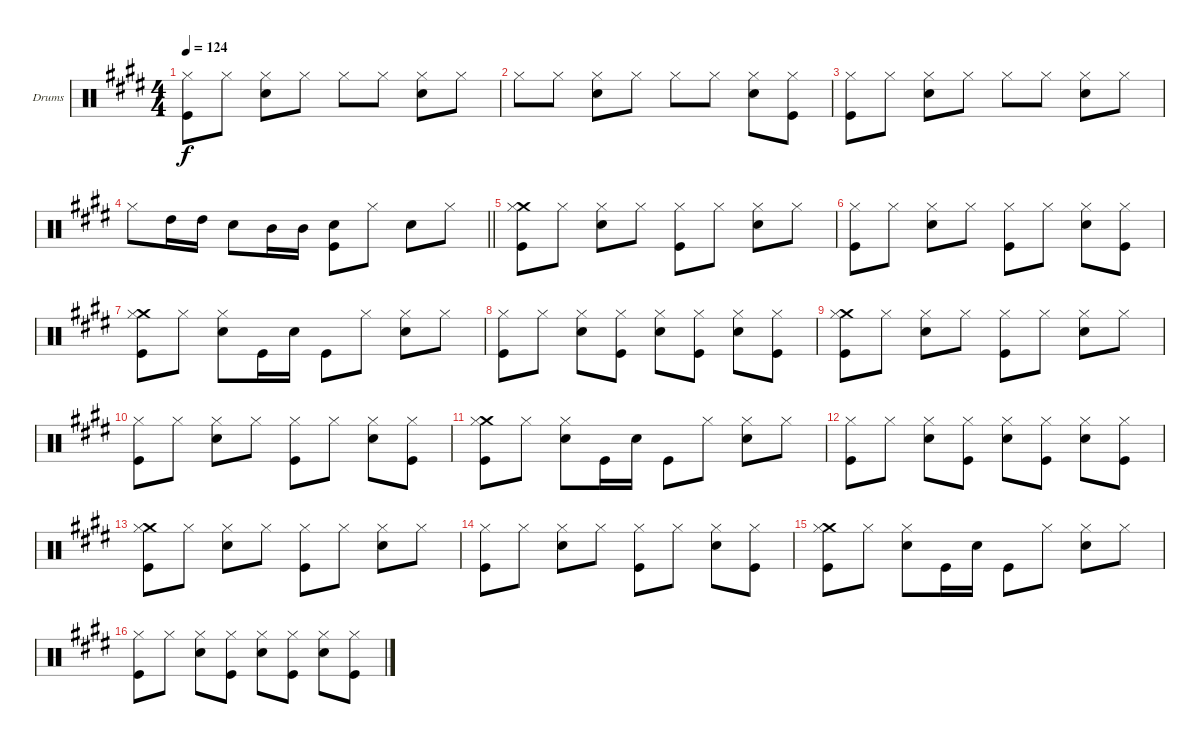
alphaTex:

\defaultSystemsLayout 4
\bracketExtendMode groupsimilarinstruments
\firstSystemTrackNameOrientation horizontal
\otherSystemsTrackNameOrientation horizontal
\track ("Drumkit" "Drums") {instrument percussion}
\staff {score}
\articulation defaults
\ts (4 4)
\tempo 124
\clef neutral
\scale
1.06557
\ks e
("Hi-Hat (closed)" "Kick (hit)").8{dy f} "Hi-Hat (closed)".8 ("Hi-Hat (closed)" "Snare (hit) 2").8 "Hi-Hat (closed)".8 "Hi-Hat (closed)".8 "Hi-Hat (closed)".8 ("Hi-Hat (closed)" "Snare (hit) 2").8 "Hi-Hat (closed)".8 |
\scale
0.934426 "Hi-Hat (closed)".8 "Hi-Hat (closed)".8 ("Hi-Hat (closed)" "Snare (hit) 2").8 "Hi-Hat (closed)".8 "Hi-Hat (closed)".8 "Hi-Hat (closed)".8 ("Hi-Hat (closed)" "Snare (hit) 2").8 ("Hi-Hat (closed)" "Kick (hit)").8 |
\scale
1.06557 ("Hi-Hat (closed)" "Kick (hit)").8 "Hi-Hat (closed)".8 ("Hi-Hat (closed)" "Snare (hit) 2").8 "Hi-Hat (closed)".8 "Hi-Hat (closed)".8 "Hi-Hat (closed)".8 ("Hi-Hat (closed)" "Snare (hit) 2").8 "Hi-Hat (closed)".8 |
\scale
0.934426
\barLineRight lightlight "Hi-Hat (closed)".8 "High Tom (hit)".16 "High Tom (hit)".16 "Snare (hit) 2".8 "Mid Tom (hit)".16 "Mid Tom (hit)".16
("Snare (hit) 2" "Kick (hit)").8 "Hi-Hat (closed)".8 "Snare (hit) 2".8 "Hi-Hat (closed)".8 |
\scale
1.06557 ("Crash medium (hit)" "Hi-Hat (closed)" "Kick (hit)").8 "Hi-Hat (closed)".8 ("Hi-Hat (closed)" "Snare (hit) 2").8 "Hi-Hat (closed)".8 ("Hi-Hat (closed)" "Kick (hit)").8 "Hi-Hat (closed)".8 ("Hi-Hat (closed)" "Snare (hit) 2").8 "Hi-Hat (closed)".8 |
\scale
0.934426 ("Hi-Hat (closed)" "Kick (hit)").8 "Hi-Hat (closed)".8 ("Hi-Hat (closed)" "Snare (hit) 2").8 "Hi-Hat (closed)".8 ("Hi-Hat (closed)" "Kick (hit)").8 "Hi-Hat (closed)".8 ("Hi-Hat (closed)" "Snare (hit) 2").8 ("Hi-Hat (closed)" "Kick (hit)").8 |
\scale
1.06557 ("Crash medium (hit)" "Hi-Hat (closed)" "Kick (hit)").8 "Hi-Hat (closed)".8 ("Hi-Hat (closed)" "Snare (hit) 2").8 "Kick (hit)".16 "Snare (hit) 2".16 "Kick (hit)".8 "Hi-Hat (closed)".8 ("Hi-Hat (closed)" "Snare (hit) 2").8 "Hi-Hat (closed)".8 |
\scale
0.934426 ("Hi-Hat (closed)" "Kick (hit)").8 "Hi-Hat (closed)".8 ("Hi-Hat (closed)" "Snare (hit) 2").8 ("Hi-Hat (closed)" "Kick (hit)").8 ("Hi-Hat (closed)" "Snare (hit) 2").8 ("Hi-Hat (closed)" "Kick (hit)").8 ("Hi-Hat (closed)" "Snare (hit) 2").8 ("Hi-Hat (closed)" "Kick (hit)").8 |
\scale
1.06557 ("Crash medium (hit)" "Hi-Hat (closed)" "Kick (hit)").8 "Hi-Hat (closed)".8 ("Hi-Hat (closed)" "Snare (hit) 2").8 "Hi-Hat (closed)".8 ("Hi-Hat (closed)" "Kick (hit)").8 "Hi-Hat (closed)".8 ("Hi-Hat (closed)" "Snare (hit) 2").8 "Hi-Hat (closed)".8 |
\scale
0.934426 ("Hi-Hat (closed)" "Kick (hit)").8 "Hi-Hat (closed)".8 ("Hi-Hat (closed)" "Snare (hit) 2").8 "Hi-Hat (closed)".8 ("Hi-Hat (closed)" "Kick (hit)").8 "Hi-Hat (closed)".8 ("Hi-Hat (closed)" "Snare (hit) 2").8 ("Hi-Hat (closed)" "Kick (hit)").8 |
\scale
1.06557 ("Crash medium (hit)" "Hi-Hat (closed)" "Kick (hit)").8 "Hi-Hat (closed)".8 ("Hi-Hat (closed)" "Snare (hit) 2").8 "Kick (hit)".16 "Snare (hit) 2".16 "Kick (hit)".8 "Hi-Hat (closed)".8 ("Hi-Hat (closed)" "Snare (hit) 2").8 "Hi-Hat (closed)".8 |
\scale
0.934426 ("Hi-Hat (closed)" "Kick (hit)").8 "Hi-Hat (closed)".8 ("Hi-Hat (closed)" "Snare (hit) 2").8 ("Hi-Hat (closed)" "Kick (hit)").8 ("Hi-Hat (closed)" "Snare (hit) 2").8 ("Hi-Hat (closed)" "Kick (hit)").8 ("Hi-Hat (closed)" "Snare (hit) 2").8 ("Hi-Hat (closed)" "Kick (hit)").8 |
\scale
1.06557 ("Crash medium (hit)" "Hi-Hat (closed)" "Kick (hit)").8 "Hi-Hat (closed)".8 ("Hi-Hat (closed)" "Snare (hit) 2").8 "Hi-Hat (closed)".8 ("Hi-Hat (closed)" "Kick (hit)").8 "Hi-Hat (closed)".8 ("Hi-Hat (closed)" "Snare (hit) 2").8 "Hi-Hat (closed)".8 |
\scale
0.934426 ("Hi-Hat (closed)" "Kick (hit)").8 "Hi-Hat (closed)".8 ("Hi-Hat (closed)" "Snare (hit) 2").8 "Hi-Hat (closed)".8 ("Hi-Hat (closed)" "Kick (hit)").8 "Hi-Hat (closed)".8 ("Hi-Hat (closed)" "Snare (hit) 2").8 ("Hi-Hat (closed)" "Kick (hit)").8 |
\scale
1.06557 ("Crash medium (hit)" "Hi-Hat (closed)" "Kick (hit)").8 "Hi-Hat (closed)".8 ("Hi-Hat (closed)" "Snare (hit) 2").8 "Kick (hit)".16 "Snare (hit) 2".16 "Kick (hit)".8 "Hi-Hat (closed)".8 ("Hi-Hat (closed)" "Snare (hit) 2").8 "Hi-Hat (closed)".8 |
\scale
0.934426 ("Hi-Hat (closed)" "Kick (hit)").8 "Hi-Hat (closed)".8 ("Hi-Hat (closed)" "Snare (hit) 2").8 ("Hi-Hat (closed)" "Kick (hit)").8 ("Hi-Hat (closed)" "Snare (hit) 2").8 ("Hi-Hat (closed)" "Kick (hit)").8 ("Hi-Hat (closed)" "Snare (hit) 2").8 ("Hi-Hat (closed)" "Kick (hit)").8
